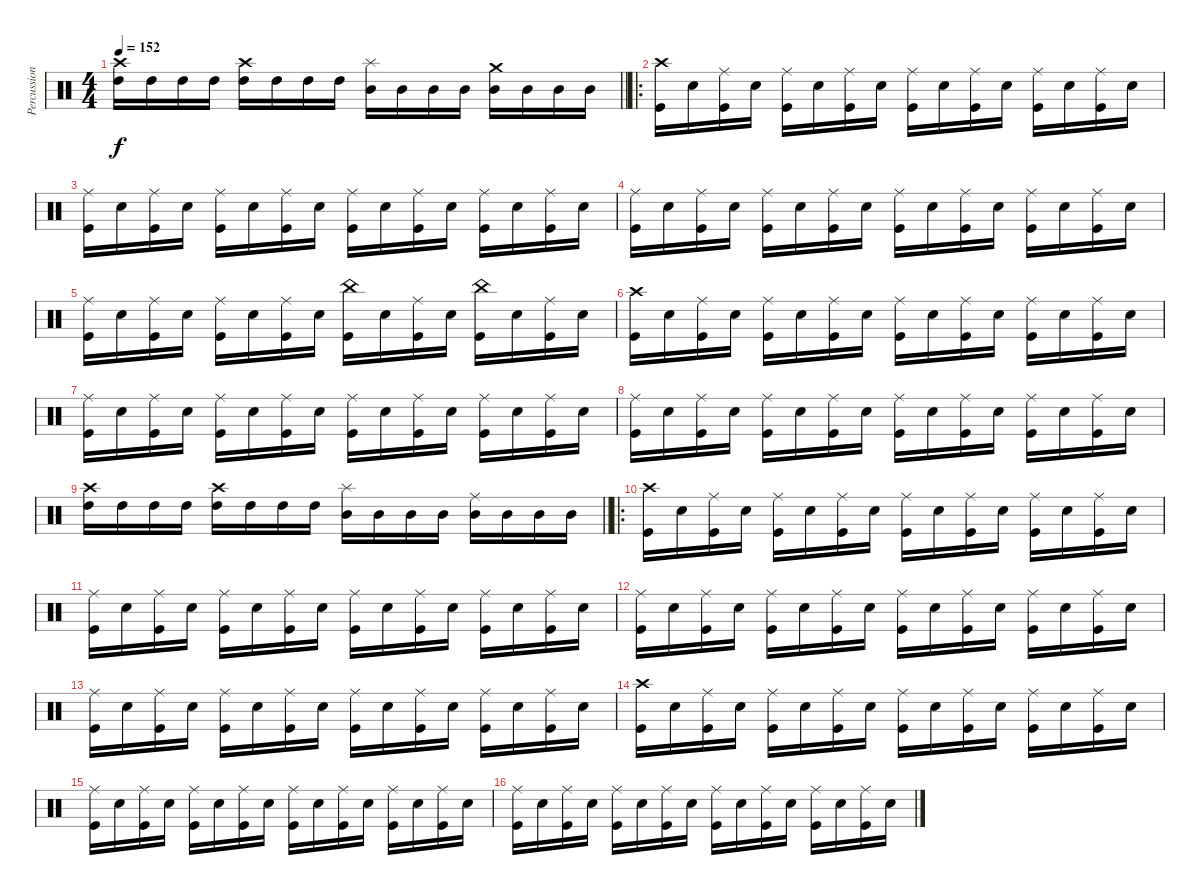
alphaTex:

\track ("Percussion" "Percussion") {instrument percussion}
\staff {score}
\articulation defaults
\ts (4 4)
\tempo 152
\clef neutral
\barLineRight lightlight
\ks c
("Crash high (hit)" "High Tom (hit)").16{dy f} "High Tom (hit)".16 "High Tom (hit)".16 "High Tom (hit)".16 ("Crash high (hit)" "High Tom (hit)").16 "High Tom (hit)".16 "High Tom (hit)".16 "High Tom (hit)".16 ("Splash (hit)" "Mid Tom (hit)").16 "Mid Tom (hit)".16 "Mid Tom (hit)".16 "Mid Tom (hit)".16 ("Crash medium (hit)" "Mid Tom (hit)").16 "Mid Tom (hit)".16 "Mid Tom (hit)".16 "Mid Tom (hit)".16 |
\ro
("Crash high (hit)" "Kick (hit)").16 "Snare (hit) 2".16 ("Ride (middle)" "Kick (hit)").16{volume 8} "Snare (hit) 2".16 ("Ride (middle)" "Kick (hit)").16 "Snare (hit) 2".16 ("Ride (middle)" "Kick (hit)").16 "Snare (hit) 2".16 ("Ride (middle)" "Kick (hit)").16 "Snare (hit) 2".16 ("Ride (middle)" "Kick (hit)").16 "Snare (hit) 2".16 ("Ride (middle)" "Kick (hit)").16 "Snare (hit) 2".16 ("Ride (middle)" "Kick (hit)").16 "Snare (hit) 2".16 |
("Ride (middle)" "Kick (hit)").16 "Snare (hit) 2".16 ("Ride (middle)" "Kick (hit)").16 "Snare (hit) 2".16 ("Ride (middle)" "Kick (hit)").16 "Snare (hit) 2".16 ("Ride (middle)" "Kick (hit)").16 "Snare (hit) 2".16 ("Ride (middle)" "Kick (hit)").16 "Snare (hit) 2".16 ("Ride (middle)" "Kick (hit)").16 "Snare (hit) 2".16 ("Ride (middle)" "Kick (hit)").16 "Snare (hit) 2".16 ("Ride (middle)" "Kick (hit)").16 "Snare (hit) 2".16 |
("Ride (middle)" "Kick (hit)").16 "Snare (hit) 2".16 ("Ride (middle)" "Kick (hit)").16 "Snare (hit) 2".16 ("Ride (middle)" "Kick (hit)").16 "Snare (hit) 2".16 ("Ride (middle)" "Kick (hit)").16 "Snare (hit) 2".16 ("Ride (middle)" "Kick (hit)").16 "Snare (hit) 2".16 ("Ride (middle)" "Kick (hit)").16 "Snare (hit) 2".16 ("Ride (middle)" "Kick (hit)").16 "Snare (hit) 2".16 ("Ride (middle)" "Kick (hit)").16 "Snare (hit) 2".16 |
("Ride (middle)" "Kick (hit)").16 "Snare (hit) 2".16 ("Ride (middle)" "Kick (hit)").16 "Snare (hit) 2".16 ("Ride (middle)" "Kick (hit)").16 "Snare (hit) 2".16 ("Ride (middle)" "Kick (hit)").16 "Snare (hit) 2".16 ("China (hit)" "Kick (hit)").16 "Snare (hit) 2".16 ("Ride (middle)" "Kick (hit)").16 "Snare (hit) 2".16 ("China (hit)" "Kick (hit)").16 "Snare (hit) 2".16 ("Ride (middle)" "Kick (hit)").16 "Snare (hit) 2".16 |
("Crash high (hit)" "Kick (hit)").16 "Snare (hit) 2".16 ("Ride (middle)" "Kick (hit)").16 "Snare (hit) 2".16{volume 8} ("Ride (middle)" "Kick (hit)").16 "Snare (hit) 2".16 ("Ride (middle)" "Kick (hit)").16 "Snare (hit) 2".16 ("Ride (middle)" "Kick (hit)").16 "Snare (hit) 2".16 ("Ride (middle)" "Kick (hit)").16 "Snare (hit) 2".16 ("Ride (middle)" "Kick (hit)").16 "Snare (hit) 2".16 ("Ride (middle)" "Kick (hit)").16 "Snare (hit) 2".16 |
("Ride (middle)" "Kick (hit)").16 "Snare (hit) 2".16 ("Ride (middle)" "Kick (hit)").16 "Snare (hit) 2".16 ("Ride (middle)" "Kick (hit)").16 "Snare (hit) 2".16 ("Ride (middle)" "Kick (hit)").16 "Snare (hit) 2".16 ("Ride (middle)" "Kick (hit)").16 "Snare (hit) 2".16 ("Ride (middle)" "Kick (hit)").16 "Snare (hit) 2".16 ("Ride (middle)" "Kick (hit)").16 "Snare (hit) 2".16 ("Ride (middle)" "Kick (hit)").16 "Snare (hit) 2".16 |
("Ride (middle)" "Kick (hit)").16 "Snare (hit) 2".16 ("Ride (middle)" "Kick (hit)").16 "Snare (hit) 2".16 ("Ride (middle)" "Kick (hit)").16 "Snare (hit) 2".16 ("Ride (middle)" "Kick (hit)").16 "Snare (hit) 2".16 ("Ride (middle)" "Kick (hit)").16 "Snare (hit) 2".16 ("Ride (middle)" "Kick (hit)").16 "Snare (hit) 2".16 ("Ride (middle)" "Kick (hit)").16 "Snare (hit) 2".16 ("Ride (middle)" "Kick (hit)").16 "Snare (hit) 2".16 |
\barLineRight lightlight
("Crash high (hit)" "High Tom (hit)").16 "High Tom (hit)".16 "High Tom (hit)".16 "High Tom (hit)".16 ("Crash high (hit)" "High Tom (hit)").16 "High Tom (hit)".16 "High Tom (hit)".16 "High Tom (hit)".16 ("Splash (hit)" "Mid Tom (hit)").16 "Mid Tom (hit)".16 "Mid Tom (hit)".16 "Mid Tom (hit)".16 ("Ride (middle)" "Mid Tom (hit)").16 "Mid Tom (hit)".16 "Mid Tom (hit)".16 "Mid Tom (hit)".16 |
\ro
("Crash high (hit)" "Kick (hit)").16 "Snare (hit) 2".16 ("Ride (middle)" "Kick (hit)").16 "Snare (hit) 2".16{volume 7} ("Ride (middle)" "Kick (hit)").16 "Snare (hit) 2".16 ("Ride (middle)" "Kick (hit)").16 "Snare (hit) 2".16 ("Ride (middle)" "Kick (hit)").16 "Snare (hit) 2".16 ("Ride (middle)" "Kick (hit)").16 "Snare (hit) 2".16 ("Ride (middle)" "Kick (hit)").16 "Snare (hit) 2".16 ("Ride (middle)" "Kick (hit)").16 "Snare (hit) 2".16 |
("Ride (middle)" "Kick (hit)").16 "Snare (hit) 2".16 ("Ride (middle)" "Kick (hit)").16 "Snare (hit) 2".16 ("Ride (middle)" "Kick (hit)").16 "Snare (hit) 2".16 ("Ride (middle)" "Kick (hit)").16 "Snare (hit) 2".16 ("Ride (middle)" "Kick (hit)").16 "Snare (hit) 2".16 ("Ride (middle)" "Kick (hit)").16 "Snare (hit) 2".16 ("Ride (middle)" "Kick (hit)").16 "Snare (hit) 2".16 ("Ride (middle)" "Kick (hit)").16 "Snare (hit) 2".16 |
("Ride (middle)" "Kick (hit)").16 "Snare (hit) 2".16 ("Ride (middle)" "Kick (hit)").16 "Snare (hit) 2".16 ("Ride (middle)" "Kick (hit)").16 "Snare (hit) 2".16 ("Ride (middle)" "Kick (hit)").16 "Snare (hit) 2".16 ("Ride (middle)" "Kick (hit)").16 "Snare (hit) 2".16 ("Ride (middle)" "Kick (hit)").16 "Snare (hit) 2".16 ("Ride (middle)" "Kick (hit)").16 "Snare (hit) 2".16 ("Ride (middle)" "Kick (hit)").16 "Snare (hit) 2".16 |
("Ride (middle)" "Kick (hit)").16 "Snare (hit) 2".16 ("Ride (middle)" "Kick (hit)").16 "Snare (hit) 2".16 ("Ride (middle)" "Kick (hit)").16 "Snare (hit) 2".16 ("Ride (middle)" "Kick (hit)").16 "Snare (hit) 2".16 ("Ride (middle)" "Kick (hit)").16 "Snare (hit) 2".16 ("Ride (middle)" "Kick (hit)").16 "Snare (hit) 2".16 ("Ride (middle)" "Kick (hit)").16 "Snare (hit) 2".16 ("Ride (middle)" "Kick (hit)").16 "Snare (hit) 2".16 |
("Crash high (hit)" "Kick (hit)").16 "Snare (hit) 2".16 ("Ride (middle)" "Kick (hit)").16 "Snare (hit) 2".16 ("Ride (middle)" "Kick (hit)").16{volume 6} "Snare (hit) 2".16 ("Ride (middle)" "Kick (hit)").16 "Snare (hit) 2".16 ("Ride (middle)" "Kick (hit)").16 "Snare (hit) 2".16 ("Ride (middle)" "Kick (hit)").16 "Snare (hit) 2".16 ("Ride (middle)" "Kick (hit)").16 "Snare (hit) 2".16 ("Ride (middle)" "Kick (hit)").16 "Snare (hit) 2".16 |
("Ride (middle)" "Kick (hit)").16 "Snare (hit) 2".16 ("Ride (middle)" "Kick (hit)").16 "Snare (hit) 2".16 ("Ride (middle)" "Kick (hit)").16 "Snare (hit) 2".16 ("Ride (middle)" "Kick (hit)").16 "Snare (hit) 2".16 ("Ride (middle)" "Kick (hit)").16 "Snare (hit) 2".16 ("Ride (middle)" "Kick (hit)").16 "Snare (hit) 2".16 ("Ride (middle)" "Kick (hit)").16 "Snare (hit) 2".16 ("Ride (middle)" "Kick (hit)").16 "Snare (hit) 2".16 |
("Ride (middle)" "Kick (hit)").16 "Snare (hit) 2".16 ("Ride (middle)" "Kick (hit)").16 "Snare (hit) 2".16 ("Ride (middle)" "Kick (hit)").16 "Snare (hit) 2".16 ("Ride (middle)" "Kick (hit)").16 "Snare (hit) 2".16 ("Ride (middle)" "Kick (hit)").16 "Snare (hit) 2".16 ("Ride (middle)" "Kick (hit)").16 "Snare (hit) 2".16 ("Ride (middle)" "Kick (hit)").16 "Snare (hit) 2".16 ("Ride (middle)" "Kick (hit)").16 "Snare (hit) 2".16
